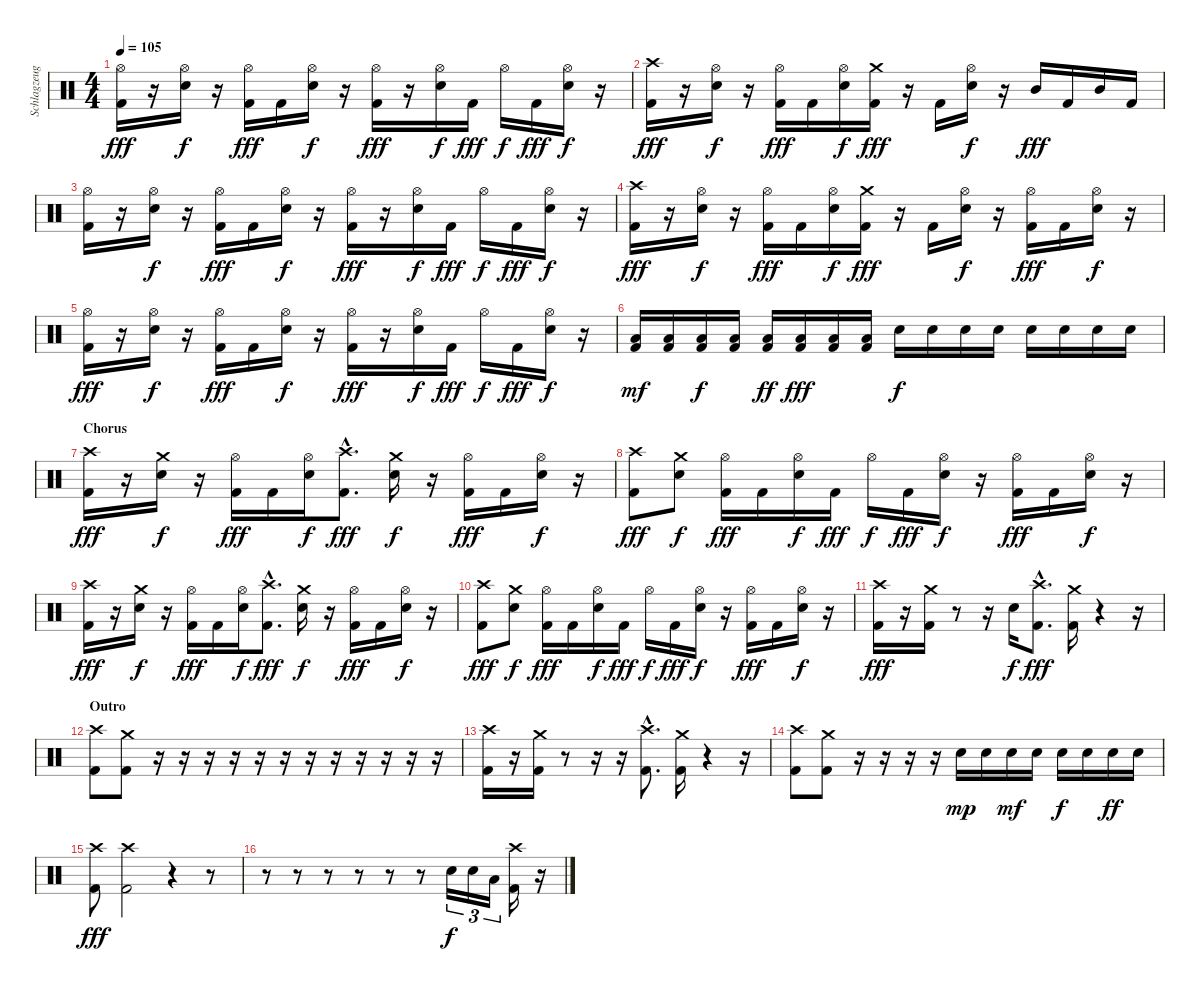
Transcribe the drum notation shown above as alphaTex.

\track ("Schlagzeug" "Schlagzeug") {instrument percussion}
\staff {score}
\articulation defaults
\ts (4 4)
\tempo 105
\clef neutral
\ks c
("Hi-Hat (open)" "Kick (hit) 2").16{dy fff} r.16 ("Hi-Hat (open)" "Electric Snare (hit)").16{dy f} r.16 ("Hi-Hat (open)" "Kick (hit) 2").16{dy fff} "Kick (hit) 2".16 ("Hi-Hat (open)" "Electric Snare (hit)").16{dy f} r.16 ("Hi-Hat (open)" "Kick (hit) 2").16{dy fff} r.16 ("Hi-Hat (open)" "Electric Snare (hit)").16{dy f} "Kick (hit) 2".16{dy fff} "Hi-Hat (open)".16{dy f} "Kick (hit) 2".16{dy fff} ("Hi-Hat (open)" "Electric Snare (hit)").16{dy f} r.16 |
("Crash high (hit)" "Kick (hit) 2").16{dy fff} r.16 ("Hi-Hat (open)" "Electric Snare (hit)").16{dy f} r.16 ("Hi-Hat (open)" "Kick (hit) 2").16{dy fff} "Kick (hit) 2".16 ("Hi-Hat (open)" "Electric Snare (hit)").16{dy f} ("Crash medium (hit)" "Kick (hit) 2").16{dy fff} r.16 "Kick (hit) 2".16 ("Hi-Hat (open)" "Electric Snare (hit)").16{dy f} r.16 "Mid Tom (hit)".16{dy fff} "Kick (hit) 2".16 "Mid Tom (hit)".16 "Kick (hit) 2".16 |
("Hi-Hat (open)" "Kick (hit) 2").16 r.16 ("Hi-Hat (open)" "Electric Snare (hit)").16{dy f} r.16 ("Hi-Hat (open)" "Kick (hit) 2").16{dy fff} "Kick (hit) 2".16 ("Hi-Hat (open)" "Electric Snare (hit)").16{dy f} r.16 ("Hi-Hat (open)" "Kick (hit) 2").16{dy fff} r.16 ("Hi-Hat (open)" "Electric Snare (hit)").16{dy f} "Kick (hit) 2".16{dy fff} "Hi-Hat (open)".16{dy f} "Kick (hit) 2".16{dy fff} ("Hi-Hat (open)" "Electric Snare (hit)").16{dy f} r.16 |
("Crash high (hit)" "Kick (hit) 2").16{dy fff} r.16 ("Hi-Hat (open)" "Electric Snare (hit)").16{dy f} r.16 ("Hi-Hat (open)" "Kick (hit) 2").16{dy fff} "Kick (hit) 2".16 ("Hi-Hat (open)" "Electric Snare (hit)").16{dy f} ("Crash medium (hit)" "Kick (hit) 2").16{dy fff} r.16 "Kick (hit) 2".16 ("Hi-Hat (open)" "Electric Snare (hit)").16{dy f} r.16 ("Hi-Hat (open)" "Kick (hit) 2").16{dy fff} "Kick (hit) 2".16 ("Hi-Hat (open)" "Electric Snare (hit)").16{dy f} r.16 |
("Hi-Hat (open)" "Kick (hit) 2").16{dy fff} r.16 ("Hi-Hat (open)" "Electric Snare (hit)").16{dy f} r.16 ("Hi-Hat (open)" "Kick (hit) 2").16{dy fff} "Kick (hit) 2".16 ("Hi-Hat (open)" "Electric Snare (hit)").16{dy f} r.16 ("Hi-Hat (open)" "Kick (hit) 2").16{dy fff} r.16 ("Hi-Hat (open)" "Electric Snare (hit)").16{dy f} "Kick (hit) 2".16{dy fff} "Hi-Hat (open)".16{dy f} "Kick (hit) 2".16{dy fff} ("Hi-Hat (open)" "Electric Snare (hit)").16{dy f} r.16 |
("Low Floor Tom (hit)" "Kick (hit) 2").16{dy mf} ("Low Floor Tom (hit)" "Kick (hit) 2").16 ("Low Floor Tom (hit)" "Kick (hit) 2").16{dy f} ("Low Floor Tom (hit)" "Kick (hit) 2").16 ("Low Floor Tom (hit)" "Kick (hit) 2").16{dy ff} ("Low Floor Tom (hit)" "Kick (hit) 2").16{dy fff} ("Low Floor Tom (hit)" "Kick (hit) 2").16 ("Low Floor Tom (hit)" "Kick (hit) 2").16 "Electric Snare (hit)".16{dy f} "Electric Snare (hit)".16 "Electric Snare (hit)".16 "Electric Snare (hit)".16 "Electric Snare (hit)".16 "Electric Snare (hit)".16 "Electric Snare (hit)".16 "Electric Snare (hit)".16 |
\section ("" "Chorus")
("Crash high (hit)" "Kick (hit) 2").16{dy fff} r.16 ("Crash medium (hit)" "Electric Snare (hit)").16{dy f} r.16 ("Hi-Hat (open)" "Kick (hit) 2").16{dy fff} "Kick (hit) 2".16 ("Hi-Hat (open)" "Electric Snare (hit)").16{dy f} ("Crash high (hit)"{hac} "Kick (hit) 2"{hac}).8{d dy fff} ("Crash medium (hit)" "Electric Snare (hit)").16{dy f} r.16 ("Hi-Hat (open)" "Kick (hit) 2").16{dy fff} "Kick (hit) 2".16 ("Hi-Hat (open)" "Electric Snare (hit)").16{dy f} r.16 |
("Crash high (hit)" "Kick (hit) 2").8{dy fff} ("Crash medium (hit)" "Electric Snare (hit)").8{dy f} ("Hi-Hat (open)" "Kick (hit) 2").16{dy fff} "Kick (hit) 2".16 ("Hi-Hat (open)" "Electric Snare (hit)").16{dy f} "Kick (hit) 2".16{dy fff} "Hi-Hat (open)".16{dy f} "Kick (hit) 2".16{dy fff} ("Hi-Hat (open)" "Electric Snare (hit)").16{dy f} r.16 ("Hi-Hat (open)" "Kick (hit) 2").16{dy fff} "Kick (hit) 2".16 ("Hi-Hat (open)" "Electric Snare (hit)").16{dy f} r.16 |
("Crash high (hit)" "Kick (hit) 2").16{dy fff} r.16 ("Crash medium (hit)" "Electric Snare (hit)").16{dy f} r.16 ("Hi-Hat (open)" "Kick (hit) 2").16{dy fff} "Kick (hit) 2".16 ("Hi-Hat (open)" "Electric Snare (hit)").16{dy f} ("Crash high (hit)"{hac} "Kick (hit) 2"{hac}).8{d dy fff} ("Crash medium (hit)" "Electric Snare (hit)").16{dy f} r.16 ("Hi-Hat (open)" "Kick (hit) 2").16{dy fff} "Kick (hit) 2".16 ("Hi-Hat (open)" "Electric Snare (hit)").16{dy f} r.16 |
("Crash high (hit)" "Kick (hit) 2").8{dy fff} ("Crash medium (hit)" "Electric Snare (hit)").8{dy f} ("Hi-Hat (open)" "Kick (hit) 2").16{dy fff} "Kick (hit) 2".16 ("Hi-Hat (open)" "Electric Snare (hit)").16{dy f} "Kick (hit) 2".16{dy fff} "Hi-Hat (open)".16{dy f} "Kick (hit) 2".16{dy fff} ("Hi-Hat (open)" "Electric Snare (hit)").16{dy f} r.16 ("Hi-Hat (open)" "Kick (hit) 2").16{dy fff} "Kick (hit) 2".16 ("Hi-Hat (open)" "Electric Snare (hit)").16{dy f} r.16 |
("Crash high (hit)" "Kick (hit) 2").16{dy fff} r.16 ("Crash medium (hit)" "Kick (hit) 2").16 r.8 r.16 "Electric Snare (hit)".16{dy f} ("Crash high (hit)"{hac} "Kick (hit) 2"{hac}).8{d dy fff} ("Crash medium (hit)" "Kick (hit) 2").16 r.4 r.16 |
\section ("" "Outro")
("Crash high (hit)" "Kick (hit) 2").8 ("Crash medium (hit)" "Kick (hit) 2").8 r.16 r.16 r.16 r.16 r.16 r.16 r.16 r.16 r.16 r.16 r.16 r.16 |
("Crash high (hit)" "Kick (hit) 2").16 r.16 ("Crash medium (hit)" "Kick (hit) 2").16 r.8 r.16 r.16 ("Crash high (hit)"{hac} "Kick (hit) 2"{hac}).8{d} ("Crash medium (hit)" "Kick (hit) 2").16 r.4 r.16 |
("Crash high (hit)" "Kick (hit) 2").8 ("Crash medium (hit)" "Kick (hit) 2").8 r.16 r.16 r.16 r.16 "Electric Snare (hit)".16{dy mp} "Electric Snare (hit)".16 "Electric Snare (hit)".16{dy mf} "Electric Snare (hit)".16 "Electric Snare (hit)".16{dy f} "Electric Snare (hit)".16 "Electric Snare (hit)".16{dy ff} "Electric Snare (hit)".16 |
("Crash high (hit)" "Kick (hit) 2").8{dy fff} ("Crash high (hit)" "Kick (hit) 2").2 r.4 r.8 |
r.8 r.8 r.8 r.8 r.8 r.8 "Electric Snare (hit)".16{tu (3 2) dy f} "Electric Snare (hit)".16{tu (3 2)} "Low Floor Tom (hit)".16{tu (3 2)} ("Crash high (hit)" "Kick (hit) 2").16 r.16
